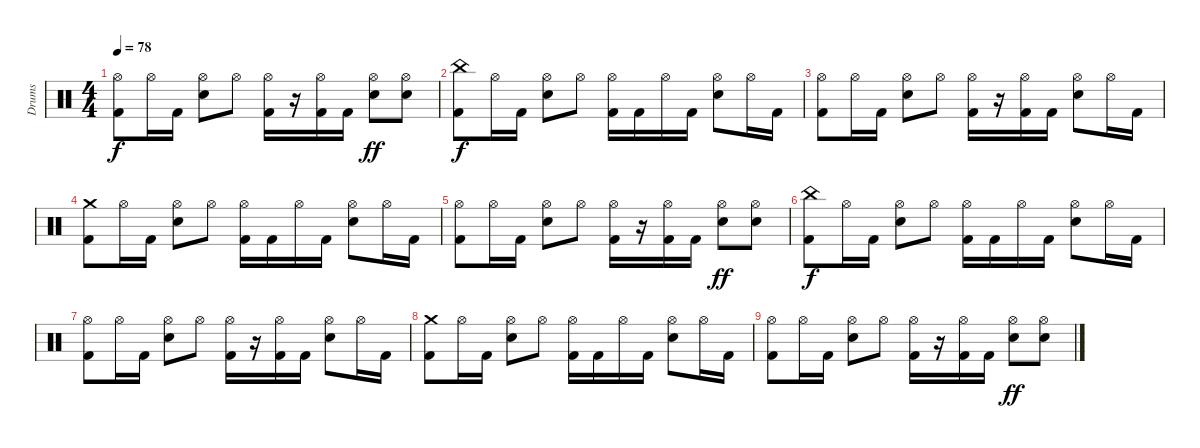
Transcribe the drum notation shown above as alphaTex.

\track ("Drums" "Drums") {instrument percussion}
\staff {score}
\articulation defaults
\ts (4 4)
\tempo 78
\clef neutral
\ks c
("Hi-Hat (open)" "Kick (hit) 2").8{dy f} "Hi-Hat (open)".16 "Kick (hit) 2".16 ("Hi-Hat (open)" "Electric Snare (hit)").8 "Hi-Hat (open)".8 ("Hi-Hat (open)" "Kick (hit) 2").16 r.16 ("Hi-Hat (open)" "Kick (hit) 2").16 "Kick (hit) 2".16 ("Hi-Hat (open)" "Electric Snare (hit)").8{dy ff} ("Hi-Hat (open)" "Electric Snare (hit)").8 |
("China (hit)" "Kick (hit) 2").8{dy f} "Hi-Hat (open)".16 "Kick (hit) 2".16 ("Hi-Hat (open)" "Electric Snare (hit)").8 "Hi-Hat (open)".8 ("Hi-Hat (open)" "Kick (hit) 2").16 "Kick (hit) 2".16 "Hi-Hat (open)".16 "Kick (hit) 2".16 ("Hi-Hat (open)" "Electric Snare (hit)").8 "Hi-Hat (open)".16 "Kick (hit) 2".16 |
("Hi-Hat (open)" "Kick (hit) 2").8 "Hi-Hat (open)".16 "Kick (hit) 2".16 ("Hi-Hat (open)" "Electric Snare (hit)").8 "Hi-Hat (open)".8 ("Hi-Hat (open)" "Kick (hit) 2").16 r.16 ("Hi-Hat (open)" "Kick (hit) 2").16 "Kick (hit) 2".16 ("Hi-Hat (open)" "Electric Snare (hit)").8 "Hi-Hat (open)".16 "Kick (hit) 2".16 |
("Crash medium (hit)" "Kick (hit) 2").8 "Hi-Hat (open)".16 "Kick (hit) 2".16 ("Hi-Hat (open)" "Electric Snare (hit)").8 "Hi-Hat (open)".8 ("Hi-Hat (open)" "Kick (hit) 2").16 "Kick (hit) 2".16 "Hi-Hat (open)".16 "Kick (hit) 2".16 ("Hi-Hat (open)" "Electric Snare (hit)").8 "Hi-Hat (open)".16 "Kick (hit) 2".16 |
("Hi-Hat (open)" "Kick (hit) 2").8 "Hi-Hat (open)".16 "Kick (hit) 2".16 ("Hi-Hat (open)" "Electric Snare (hit)").8 "Hi-Hat (open)".8 ("Hi-Hat (open)" "Kick (hit) 2").16 r.16 ("Hi-Hat (open)" "Kick (hit) 2").16 "Kick (hit) 2".16 ("Hi-Hat (open)" "Electric Snare (hit)").8{dy ff} ("Hi-Hat (open)" "Electric Snare (hit)").8 |
("China (hit)" "Kick (hit) 2").8{dy f} "Hi-Hat (open)".16 "Kick (hit) 2".16 ("Hi-Hat (open)" "Electric Snare (hit)").8 "Hi-Hat (open)".8 ("Hi-Hat (open)" "Kick (hit) 2").16 "Kick (hit) 2".16 "Hi-Hat (open)".16 "Kick (hit) 2".16 ("Hi-Hat (open)" "Electric Snare (hit)").8 "Hi-Hat (open)".16 "Kick (hit) 2".16 |
("Hi-Hat (open)" "Kick (hit) 2").8 "Hi-Hat (open)".16 "Kick (hit) 2".16 ("Hi-Hat (open)" "Electric Snare (hit)").8 "Hi-Hat (open)".8 ("Hi-Hat (open)" "Kick (hit) 2").16 r.16 ("Hi-Hat (open)" "Kick (hit) 2").16 "Kick (hit) 2".16 ("Hi-Hat (open)" "Electric Snare (hit)").8 "Hi-Hat (open)".16 "Kick (hit) 2".16 |
("Crash medium (hit)" "Kick (hit) 2").8 "Hi-Hat (open)".16 "Kick (hit) 2".16 ("Hi-Hat (open)" "Electric Snare (hit)").8 "Hi-Hat (open)".8 ("Hi-Hat (open)" "Kick (hit) 2").16 "Kick (hit) 2".16 "Hi-Hat (open)".16 "Kick (hit) 2".16 ("Hi-Hat (open)" "Electric Snare (hit)").8 "Hi-Hat (open)".16 "Kick (hit) 2".16 |
("Hi-Hat (open)" "Kick (hit) 2").8 "Hi-Hat (open)".16 "Kick (hit) 2".16 ("Hi-Hat (open)" "Electric Snare (hit)").8 "Hi-Hat (open)".8 ("Hi-Hat (open)" "Kick (hit) 2").16 r.16 ("Hi-Hat (open)" "Kick (hit) 2").16 "Kick (hit) 2".16 ("Hi-Hat (open)" "Electric Snare (hit)").8{dy ff} ("Hi-Hat (open)" "Electric Snare (hit)").8
